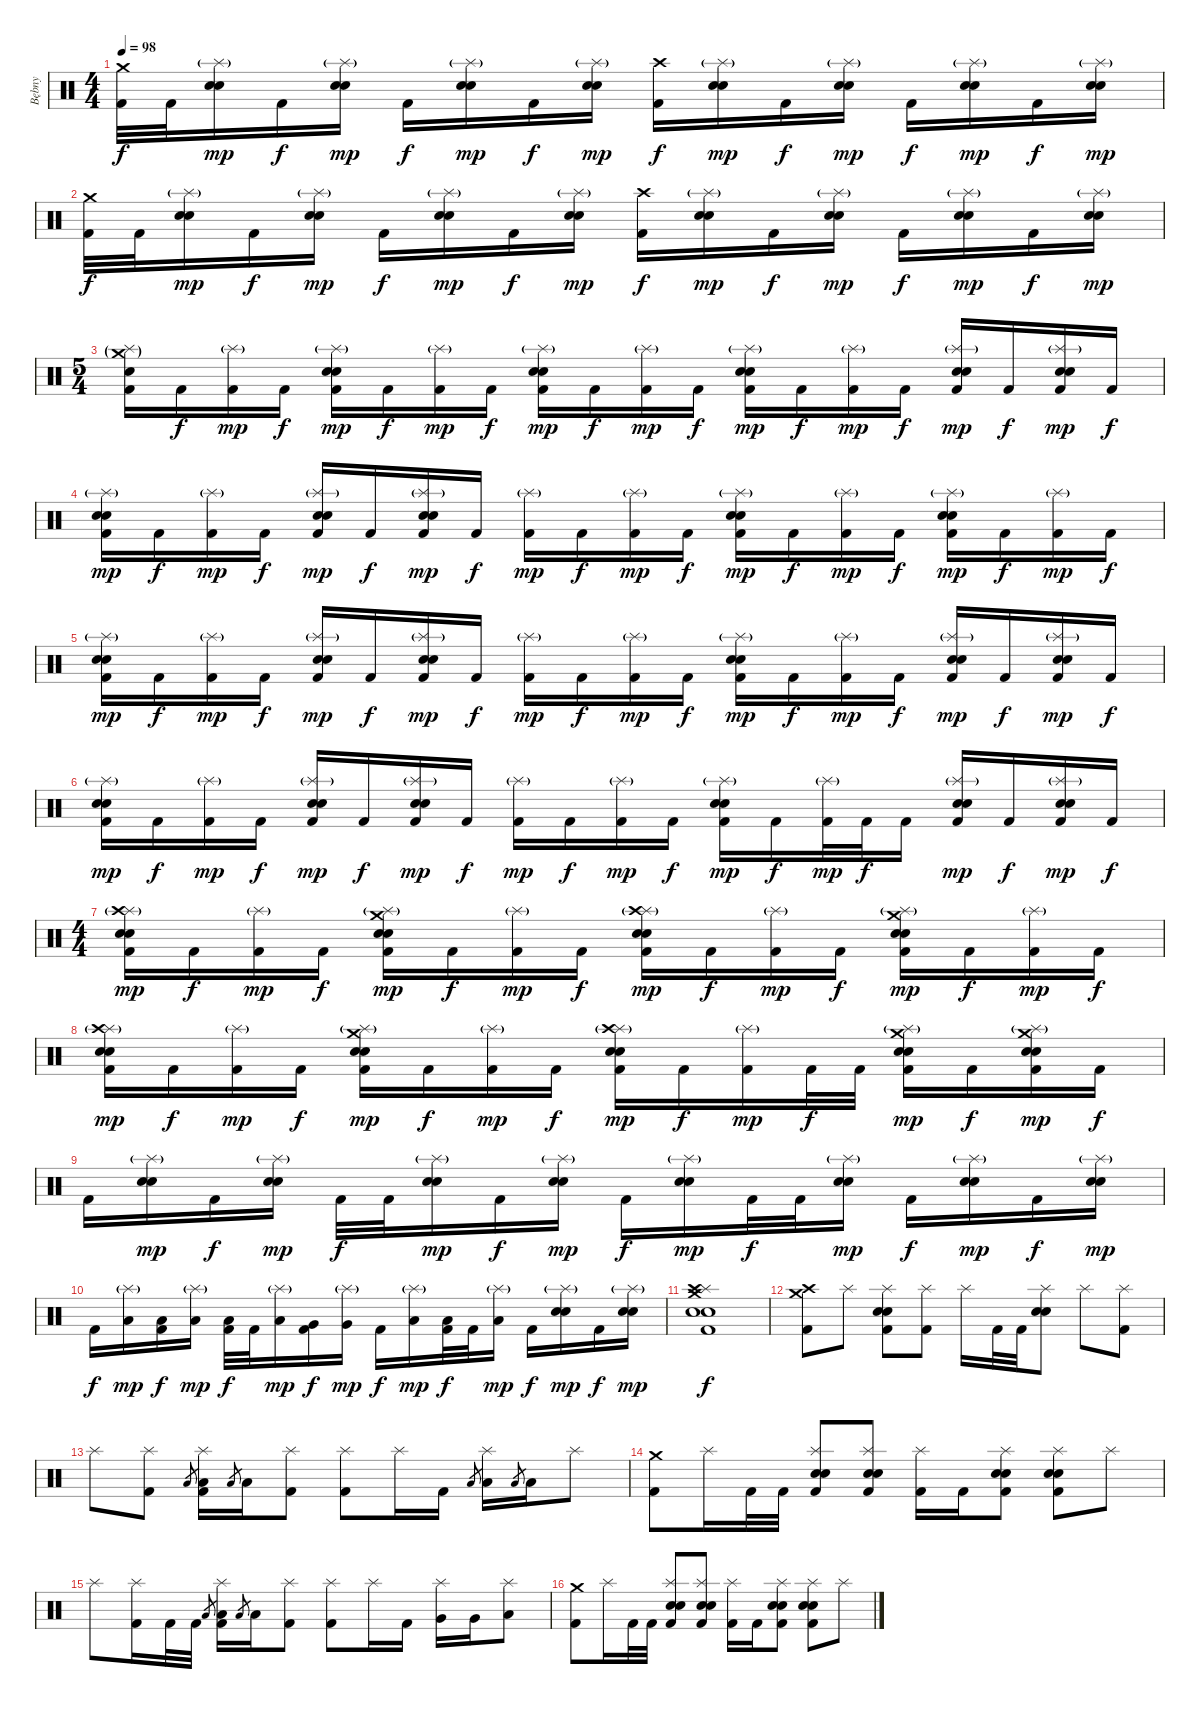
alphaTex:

\track ("Bębny" "Bębny") {instrument percussion}
\staff {score}
\articulation defaults
\ts (4 4)
\tempo 98
\clef neutral
\ks c
("Crash medium (hit)" "Kick (hit) 2").32{dy f} "Kick (hit) 2".32 ("Splash (hit)"{g} "Snare (hit) 2" "Electric Snare (hit)").16{dy mp} "Kick (hit) 2".16{dy f} ("Splash (hit)"{g} "Snare (hit) 2" "Electric Snare (hit)").16{dy mp} "Kick (hit) 2".16{dy f} ("Splash (hit)"{g} "Snare (hit) 2" "Electric Snare (hit)").16{dy mp} "Kick (hit) 2".16{dy f} ("Splash (hit)"{g} "Snare (hit) 2" "Electric Snare (hit)").16{dy mp} ("Crash high (hit)" "Kick (hit) 2").16{dy f} ("Splash (hit)"{g} "Snare (hit) 2" "Electric Snare (hit)").16{dy mp} "Kick (hit) 2".16{dy f} ("Splash (hit)"{g} "Snare (hit) 2" "Electric Snare (hit)").16{dy mp} "Kick (hit) 2".16{dy f} ("Splash (hit)"{g} "Snare (hit) 2" "Electric Snare (hit)").16{dy mp} "Kick (hit) 2".16{dy f} ("Splash (hit)"{g} "Snare (hit) 2" "Electric Snare (hit)").16{dy mp} |
("Crash medium (hit)" "Kick (hit) 2").32{dy f} "Kick (hit) 2".32 ("Splash (hit)"{g} "Snare (hit) 2" "Electric Snare (hit)").16{dy mp} "Kick (hit) 2".16{dy f} ("Splash (hit)"{g} "Snare (hit) 2" "Electric Snare (hit)").16{dy mp} "Kick (hit) 2".16{dy f} ("Splash (hit)"{g} "Snare (hit) 2" "Electric Snare (hit)").16{dy mp} "Kick (hit) 2".16{dy f} ("Splash (hit)"{g} "Snare (hit) 2" "Electric Snare (hit)").16{dy mp} ("Crash high (hit)" "Kick (hit) 2").16{dy f} ("Splash (hit)"{g} "Snare (hit) 2" "Electric Snare (hit)").16{dy mp} "Kick (hit) 2".16{dy f} ("Splash (hit)"{g} "Snare (hit) 2" "Electric Snare (hit)").16{dy mp} "Kick (hit) 2".16{dy f} ("Splash (hit)"{g} "Snare (hit) 2" "Electric Snare (hit)").16{dy mp} "Kick (hit) 2".16{dy f} ("Splash (hit)"{g} "Snare (hit) 2" "Electric Snare (hit)").16{dy mp} |
\ts (5 4)
("Splash (hit)"{g} "Crash medium (hit)"{g} "Electric Snare (hit)" "Kick (hit) 2").16 "Kick (hit) 2".16{dy f} ("Splash (hit)"{g} "Kick (hit) 2").16{dy mp} "Kick (hit) 2".16{dy f} ("Splash (hit)"{g} "Snare (hit) 2" "Electric Snare (hit)" "Kick (hit) 2").16{dy mp} "Kick (hit) 2".16{dy f} ("Splash (hit)"{g} "Kick (hit) 2").16{dy mp} "Kick (hit) 2".16{dy f} ("Splash (hit)"{g} "Snare (hit) 2" "Electric Snare (hit)" "Kick (hit) 2").16{dy mp} "Kick (hit) 2".16{dy f} ("Splash (hit)"{g} "Kick (hit) 2").16{dy mp} "Kick (hit) 2".16{dy f} ("Splash (hit)"{g} "Snare (hit) 2" "Electric Snare (hit)" "Kick (hit) 2").16{dy mp} "Kick (hit) 2".16{dy f} ("Splash (hit)"{g} "Kick (hit) 2").16{dy mp} "Kick (hit) 2".16{dy f} ("Splash (hit)"{g} "Snare (hit) 2" "Electric Snare (hit)" "Kick (hit) 2").16{dy mp} "Kick (hit) 2".16{dy f} ("Splash (hit)"{g} "Snare (hit) 2" "Electric Snare (hit)" "Kick (hit) 2").16{dy mp} "Kick (hit) 2".16{dy f} |
("Splash (hit)"{g} "Snare (hit) 2" "Electric Snare (hit)" "Kick (hit) 2").16{dy mp} "Kick (hit) 2".16{dy f} ("Splash (hit)"{g} "Kick (hit) 2").16{dy mp} "Kick (hit) 2".16{dy f} ("Splash (hit)"{g} "Snare (hit) 2" "Electric Snare (hit)" "Kick (hit) 2").16{dy mp} "Kick (hit) 2".16{dy f} ("Splash (hit)"{g} "Snare (hit) 2" "Electric Snare (hit)" "Kick (hit) 2").16{dy mp} "Kick (hit) 2".16{dy f} ("Splash (hit)"{g} "Kick (hit) 2").16{dy mp} "Kick (hit) 2".16{dy f} ("Splash (hit)"{g} "Kick (hit) 2").16{dy mp} "Kick (hit) 2".16{dy f} ("Splash (hit)"{g} "Snare (hit) 2" "Electric Snare (hit)" "Kick (hit) 2").16{dy mp} "Kick (hit) 2".16{dy f} ("Splash (hit)"{g} "Kick (hit) 2").16{dy mp} "Kick (hit) 2".16{dy f} ("Splash (hit)"{g} "Snare (hit) 2" "Electric Snare (hit)" "Kick (hit) 2").16{dy mp} "Kick (hit) 2".16{dy f} ("Splash (hit)"{g} "Kick (hit) 2").16{dy mp} "Kick (hit) 2".16{dy f} |
("Splash (hit)"{g} "Snare (hit) 2" "Electric Snare (hit)" "Kick (hit) 2").16{dy mp} "Kick (hit) 2".16{dy f} ("Splash (hit)"{g} "Kick (hit) 2").16{dy mp} "Kick (hit) 2".16{dy f} ("Splash (hit)"{g} "Snare (hit) 2" "Electric Snare (hit)" "Kick (hit) 2").16{dy mp} "Kick (hit) 2".16{dy f} ("Splash (hit)"{g} "Snare (hit) 2" "Electric Snare (hit)" "Kick (hit) 2").16{dy mp} "Kick (hit) 2".16{dy f} ("Splash (hit)"{g} "Kick (hit) 2").16{dy mp} "Kick (hit) 2".16{dy f} ("Splash (hit)"{g} "Kick (hit) 2").16{dy mp} "Kick (hit) 2".16{dy f} ("Splash (hit)"{g} "Snare (hit) 2" "Electric Snare (hit)" "Kick (hit) 2").16{dy mp} "Kick (hit) 2".16{dy f} ("Splash (hit)"{g} "Kick (hit) 2").16{dy mp} "Kick (hit) 2".16{dy f} ("Splash (hit)"{g} "Snare (hit) 2" "Electric Snare (hit)" "Kick (hit) 2").16{dy mp} "Kick (hit) 2".16{dy f} ("Splash (hit)"{g} "Snare (hit) 2" "Electric Snare (hit)" "Kick (hit) 2").16{dy mp} "Kick (hit) 2".16{dy f} |
("Splash (hit)"{g} "Snare (hit) 2" "Electric Snare (hit)" "Kick (hit) 2").16{dy mp} "Kick (hit) 2".16{dy f} ("Splash (hit)"{g} "Kick (hit) 2").16{dy mp} "Kick (hit) 2".16{dy f} ("Splash (hit)"{g} "Snare (hit) 2" "Electric Snare (hit)" "Kick (hit) 2").16{dy mp} "Kick (hit) 2".16{dy f} ("Splash (hit)"{g} "Snare (hit) 2" "Electric Snare (hit)" "Kick (hit) 2").16{dy mp} "Kick (hit) 2".16{dy f} ("Splash (hit)"{g} "Kick (hit) 2").16{dy mp} "Kick (hit) 2".16{dy f} ("Splash (hit)"{g} "Kick (hit) 2").16{dy mp} "Kick (hit) 2".16{dy f} ("Splash (hit)"{g} "Snare (hit) 2" "Electric Snare (hit)" "Kick (hit) 2").16{dy mp} "Kick (hit) 2".16{dy f} ("Splash (hit)"{g} "Kick (hit) 2").32{dy mp} "Kick (hit) 2".32{dy f} "Kick (hit) 2".16 ("Splash (hit)"{g} "Snare (hit) 2" "Electric Snare (hit)" "Kick (hit) 2").16{dy mp} "Kick (hit) 2".16{dy f} ("Splash (hit)"{g} "Snare (hit) 2" "Electric Snare (hit)" "Kick (hit) 2").16{dy mp} "Kick (hit) 2".16{dy f} |
\ts (4 4)
("Splash (hit)"{g} "Crash high (hit)" "Snare (hit) 2" "Electric Snare (hit)" "Kick (hit) 2").16{dy mp} "Kick (hit) 2".16{dy f} ("Splash (hit)"{g} "Kick (hit) 2").16{dy mp} "Kick (hit) 2".16{dy f} ("Splash (hit)"{g} "Crash medium (hit)" "Snare (hit) 2" "Electric Snare (hit)" "Kick (hit) 2").16{dy mp} "Kick (hit) 2".16{dy f} ("Splash (hit)"{g} "Kick (hit) 2").16{dy mp} "Kick (hit) 2".16{dy f} ("Splash (hit)"{g} "Crash high (hit)" "Snare (hit) 2" "Electric Snare (hit)" "Kick (hit) 2").16{dy mp} "Kick (hit) 2".16{dy f} ("Splash (hit)"{g} "Kick (hit) 2").16{dy mp} "Kick (hit) 2".16{dy f} ("Splash (hit)"{g} "Crash medium (hit)" "Snare (hit) 2" "Electric Snare (hit)" "Kick (hit) 2").16{dy mp} "Kick (hit) 2".16{dy f} ("Splash (hit)"{g} "Kick (hit) 2").16{dy mp} "Kick (hit) 2".16{dy f} |
("Splash (hit)"{g} "Crash high (hit)" "Snare (hit) 2" "Electric Snare (hit)" "Kick (hit) 2").16{dy mp} "Kick (hit) 2".16{dy f} ("Splash (hit)"{g} "Kick (hit) 2").16{dy mp} "Kick (hit) 2".16{dy f} ("Splash (hit)"{g} "Crash medium (hit)" "Snare (hit) 2" "Electric Snare (hit)" "Kick (hit) 2").16{dy mp} "Kick (hit) 2".16{dy f} ("Splash (hit)"{g} "Kick (hit) 2").16{dy mp} "Kick (hit) 2".16{dy f} ("Splash (hit)"{g} "Crash high (hit)" "Snare (hit) 2" "Electric Snare (hit)" "Kick (hit) 2").16{dy mp} "Kick (hit) 2".16{dy f} ("Splash (hit)"{g} "Kick (hit) 2").16{dy mp} "Kick (hit) 2".32{dy f} "Kick (hit) 2".32 ("Splash (hit)"{g} "Crash medium (hit)" "Snare (hit) 2" "Electric Snare (hit)" "Kick (hit) 2").16{dy mp} "Kick (hit) 2".16{dy f} ("Splash (hit)"{g} "Crash medium (hit)" "Snare (hit) 2" "Electric Snare (hit)" "Kick (hit) 2").16{dy mp} "Kick (hit) 2".16{dy f} |
"Kick (hit) 2".16 ("Splash (hit)"{g} "Snare (hit) 2" "Electric Snare (hit)").16{dy mp} "Kick (hit) 2".16{dy f} ("Splash (hit)"{g} "Snare (hit) 2" "Electric Snare (hit)").16{dy mp} "Kick (hit) 2".32{dy f} "Kick (hit) 2".32 ("Splash (hit)"{g} "Snare (hit) 2" "Electric Snare (hit)").16{dy mp} "Kick (hit) 2".16{dy f} ("Splash (hit)"{g} "Snare (hit) 2" "Electric Snare (hit)").16{dy mp} "Kick (hit) 2".16{dy f} ("Splash (hit)"{g} "Snare (hit) 2" "Electric Snare (hit)").16{dy mp} "Kick (hit) 2".32{dy f} "Kick (hit) 2".32 ("Splash (hit)"{g} "Snare (hit) 2" "Electric Snare (hit)").16{dy mp} "Kick (hit) 2".16{dy f} ("Splash (hit)"{g} "Snare (hit) 2" "Electric Snare (hit)").16{dy mp} "Kick (hit) 2".16{dy f} ("Splash (hit)"{g} "Snare (hit) 2" "Electric Snare (hit)").16{dy mp} |
"Kick (hit) 2".16{dy f} ("Splash (hit)"{g} "Low Tom (hit)").16{dy mp} ("Low Tom (hit)" "Kick (hit) 2").16{dy f} ("Splash (hit)"{g} "Low Tom (hit)").16{dy mp} ("Low Tom (hit)" "Kick (hit) 2").32{dy f} "Kick (hit) 2".32 ("Splash (hit)"{g} "Low Tom (hit)").16{dy mp} ("Very Low Tom (hit)" "Kick (hit) 2").16{dy f} ("Splash (hit)"{g} "Very Low Tom (hit)").16{dy mp} "Kick (hit) 2".16{dy f} ("Splash (hit)"{g} "Low Floor Tom (hit)").16{dy mp} ("Low Floor Tom (hit)" "Kick (hit) 2").32{dy f} "Kick (hit) 2".32 ("Splash (hit)"{g} "Low Floor Tom (hit)").16{dy mp} "Kick (hit) 2".16{dy f} ("Splash (hit)"{g} "Snare (hit) 2" "Electric Snare (hit)").16{dy mp} "Kick (hit) 2".16{dy f} ("Splash (hit)"{g} "Snare (hit) 2" "Electric Snare (hit)").16{dy mp} |
("Splash (hit)" "Crash medium (hit)" "Crash high (hit)" "Snare (hit) 2" "Electric Snare (hit)" "Kick (hit) 2").1{dy f} |
("Crash medium (hit)" "Crash high (hit)" "Kick (hit) 2").8 "Splash (hit)".8 ("Splash (hit)" "Snare (hit) 2" "Electric Snare (hit)" "Kick (hit) 2").8 ("Splash (hit)" "Kick (hit) 2").8 "Splash (hit)".16 "Kick (hit) 2".32 "Kick (hit) 2".32 ("Splash (hit)" "Snare (hit) 2" "Electric Snare (hit)").8 "Splash (hit)".8 ("Splash (hit)" "Kick (hit) 2").8 |
"Splash (hit)".8 ("Splash (hit)" "Kick (hit) 2").8 "Low Tom (hit)".8{gr} ("Splash (hit)" "Low Tom (hit)" "Kick (hit) 2").16 "Low Tom (hit)".8{gr} "Low Tom (hit)".16 ("Splash (hit)" "Kick (hit) 2").8 ("Splash (hit)" "Kick (hit) 2").8 "Splash (hit)".16 "Kick (hit) 2".16 "Low Floor Tom (hit)".8{gr} ("Splash (hit)" "Low Floor Tom (hit)").16 "Low Floor Tom (hit)".8{gr} "Low Floor Tom (hit)".16 "Splash (hit)".8 |
("Crash medium (hit)" "Kick (hit) 2").8 "Splash (hit)".16 "Kick (hit) 2".32 "Kick (hit) 2".32 ("Splash (hit)" "Snare (hit) 2" "Electric Snare (hit)" "Kick (hit) 2").8 ("Splash (hit)" "Snare (hit) 2" "Electric Snare (hit)" "Kick (hit) 2").8 ("Splash (hit)" "Kick (hit) 2").16 "Kick (hit) 2".16 ("Splash (hit)" "Snare (hit) 2" "Electric Snare (hit)" "Kick (hit) 2").8 ("Splash (hit)" "Snare (hit) 2" "Electric Snare (hit)" "Kick (hit) 2").8 "Splash (hit)".8 |
"Splash (hit)".8 ("Splash (hit)" "Kick (hit) 2").16 "Kick (hit) 2".32 "Kick (hit) 2".32 "Low Tom (hit)".8{gr} ("Splash (hit)" "Low Tom (hit)" "Kick (hit) 2").16 "Low Tom (hit)".8{gr} "Low Tom (hit)".16 ("Splash (hit)" "Kick (hit) 2").8 ("Splash (hit)" "Kick (hit) 2").8 "Splash (hit)".16 "Kick (hit) 2".16 ("Splash (hit)" "Very Low Tom (hit)").16 "Very Low Tom (hit)".16 ("Splash (hit)" "Low Floor Tom (hit)").8 |
("Crash medium (hit)" "Kick (hit) 2").8 "Splash (hit)".16 "Kick (hit) 2".32 "Kick (hit) 2".32 ("Splash (hit)" "Snare (hit) 2" "Electric Snare (hit)" "Kick (hit) 2").8 ("Splash (hit)" "Snare (hit) 2" "Electric Snare (hit)" "Kick (hit) 2").8 ("Splash (hit)" "Kick (hit) 2").16 "Kick (hit) 2".16 ("Splash (hit)" "Snare (hit) 2" "Electric Snare (hit)" "Kick (hit) 2").8 ("Splash (hit)" "Snare (hit) 2" "Electric Snare (hit)" "Kick (hit) 2").8 "Splash (hit)".8
